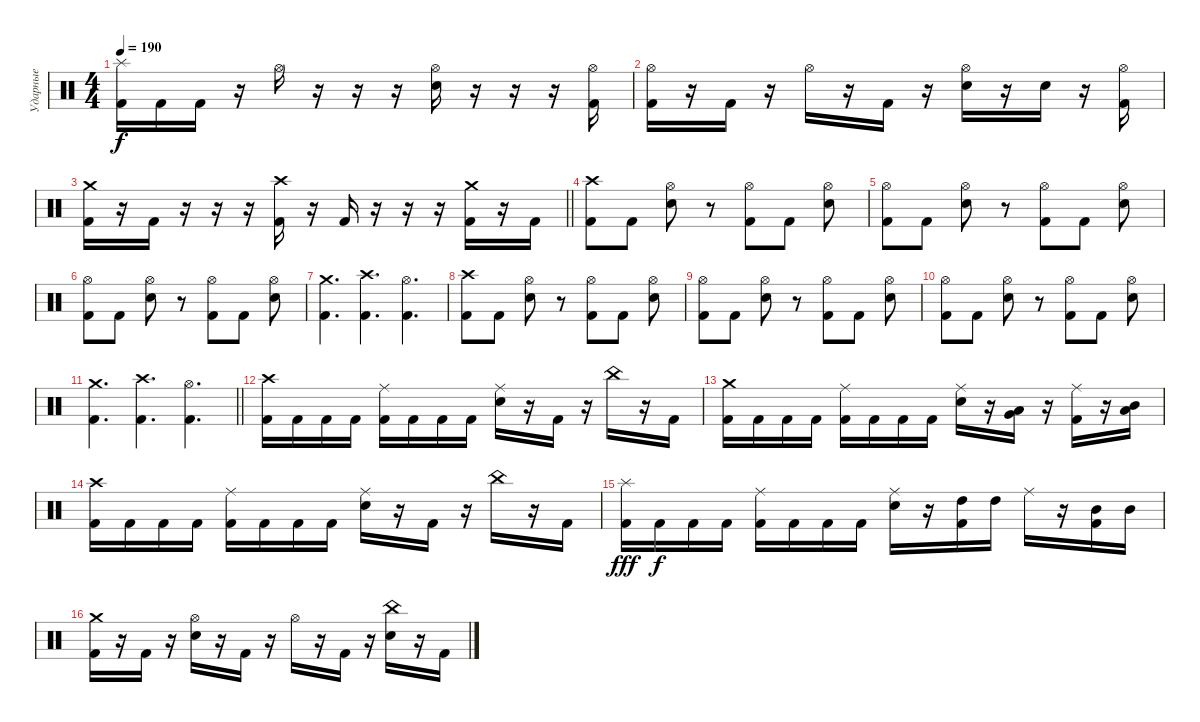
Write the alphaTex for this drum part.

\track ("Ударные" "Ударные") {instrument percussion}
\staff {score}
\articulation defaults
\ts (4 4)
\tempo 190
\clef neutral
\ks c
("Splash (hit)" "Kick (hit) 2").16{dy f} "Kick (hit) 2".16 "Kick (hit) 2".16 r.16 "Hi-Hat (open)".16 r.16 r.16 r.16 ("Hi-Hat (open)" "Snare (hit) 2").16 r.16 r.16 r.16 ("Hi-Hat (open)" "Kick (hit) 2").16 |
("Hi-Hat (open)" "Kick (hit) 2").16 r.16 "Kick (hit) 2".16 r.16 "Hi-Hat (open)".16 r.16 "Kick (hit) 2".16 r.16 ("Hi-Hat (open)" "Snare (hit) 2").16 r.16 "Snare (hit) 2".16 r.16 ("Hi-Hat (open)" "Kick (hit) 2").16 |
\barLineRight lightlight
("Crash medium (hit)" "Kick (hit) 2").16 r.16 "Kick (hit) 2".16 r.16 r.16 r.16 ("Crash high (hit)" "Kick (hit) 2").16 r.16 "Kick (hit) 2".16 r.16 r.16 r.16 ("Crash medium (hit)" "Kick (hit) 2").16 r.16 "Kick (hit) 2".16 |
("Crash high (hit)" "Kick (hit) 2").8 "Kick (hit) 2".8 ("Hi-Hat (open)" "Snare (hit) 2").8 r.8 ("Hi-Hat (open)" "Kick (hit) 2").8 "Kick (hit) 2".8 ("Hi-Hat (open)" "Snare (hit) 2").8 |
("Hi-Hat (open)" "Kick (hit) 2").8 "Kick (hit) 2".8 ("Hi-Hat (open)" "Snare (hit) 2").8 r.8 ("Hi-Hat (open)" "Kick (hit) 2").8 "Kick (hit) 2".8 ("Hi-Hat (open)" "Snare (hit) 2").8 |
("Hi-Hat (open)" "Kick (hit) 2").8 "Kick (hit) 2".8 ("Hi-Hat (open)" "Snare (hit) 2").8 r.8 ("Hi-Hat (open)" "Kick (hit) 2").8 "Kick (hit) 2".8 ("Hi-Hat (open)" "Snare (hit) 2").8 |
("Crash medium (hit)" "Kick (hit) 2").4{d} ("Crash high (hit)" "Kick (hit) 2").4{d} ("Hi-Hat (open)" "Kick (hit) 2").4{d} |
("Crash high (hit)" "Kick (hit) 2").8 "Kick (hit) 2".8 ("Hi-Hat (open)" "Snare (hit) 2").8 r.8 ("Hi-Hat (open)" "Kick (hit) 2").8 "Kick (hit) 2".8 ("Hi-Hat (open)" "Snare (hit) 2").8 |
("Hi-Hat (open)" "Kick (hit) 2").8 "Kick (hit) 2".8 ("Hi-Hat (open)" "Snare (hit) 2").8 r.8 ("Hi-Hat (open)" "Kick (hit) 2").8 "Kick (hit) 2".8 ("Hi-Hat (open)" "Snare (hit) 2").8 |
("Hi-Hat (open)" "Kick (hit) 2").8 "Kick (hit) 2".8 ("Hi-Hat (open)" "Snare (hit) 2").8 r.8 ("Hi-Hat (open)" "Kick (hit) 2").8 "Kick (hit) 2".8 ("Hi-Hat (open)" "Snare (hit) 2").8 |
\barLineRight lightlight
("Crash medium (hit)" "Kick (hit) 2").4{d} ("Crash high (hit)" "Kick (hit) 2").4{d} ("Hi-Hat (open)" "Kick (hit) 2").4{d} |
("Crash high (hit)" "Kick (hit) 2").16 "Kick (hit) 2".16 "Kick (hit) 2".16 "Kick (hit) 2".16 ("Ride (middle)" "Kick (hit) 2").16 "Kick (hit) 2".16 "Kick (hit) 2".16 "Kick (hit) 2".16 ("Ride (middle)" "Snare (hit) 2").16 r.16 "Kick (hit) 2".16 r.16 "China (hit)".16 r.16 "Kick (hit) 2".16 |
("Crash medium (hit)" "Kick (hit) 2").16 "Kick (hit) 2".16 "Kick (hit) 2".16 "Kick (hit) 2".16 ("Ride (middle)" "Kick (hit) 2").16 "Kick (hit) 2".16 "Kick (hit) 2".16 "Kick (hit) 2".16 ("Ride (middle)" "Snare (hit) 2").16 r.16 ("Low Floor Tom (hit)" "Very Low Tom (hit)").16 r.16 ("Ride (middle)" "Kick (hit) 2").16 r.16 ("Mid Tom (hit)" "Low Tom (hit)").16 |
("Crash high (hit)" "Kick (hit) 2").16 "Kick (hit) 2".16 "Kick (hit) 2".16 "Kick (hit) 2".16 ("Ride (middle)" "Kick (hit) 2").16 "Kick (hit) 2".16 "Kick (hit) 2".16 "Kick (hit) 2".16 ("Ride (middle)" "Snare (hit) 2").16 r.16 "Kick (hit) 2".16 r.16 "China (hit)".16 r.16 "Kick (hit) 2".16 |
("Splash (hit)" "Kick (hit) 2").16{dy fff} "Kick (hit) 2".16{dy f} "Kick (hit) 2".16 "Kick (hit) 2".16 ("Ride (middle)" "Kick (hit) 2").16 "Kick (hit) 2".16 "Kick (hit) 2".16 "Kick (hit) 2".16 ("Ride (middle)" "Snare (hit) 2").16 r.16 ("High Tom (hit)" "Kick (hit) 2").16 "High Tom (hit)".16 "Ride (middle)".16 r.16 ("Mid Tom (hit)" "Kick (hit) 2").16 "Mid Tom (hit)".16 |
("Crash medium (hit)" "Kick (hit) 2").16 r.16 "Kick (hit) 2".16 r.16 ("Hi-Hat (open)" "Snare (hit) 2").16 r.16 "Kick (hit) 2".16 r.16 "Hi-Hat (open)".16 r.16 "Kick (hit) 2".16 r.16 ("China (hit)" "Snare (hit) 2").16 r.16 "Kick (hit) 2".16
